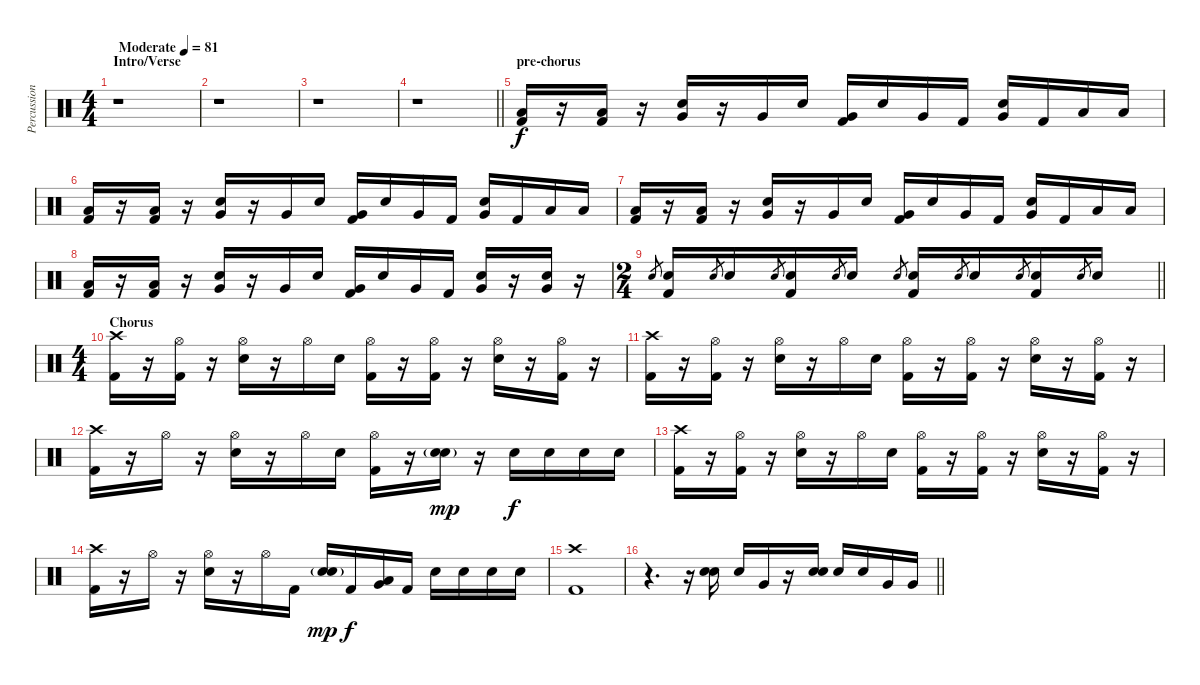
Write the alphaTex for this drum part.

\track ("Percussion" "Percussion") {instrument percussion}
\staff {score}
\articulation defaults
\ts (4 4)
\section ("" "Intro/Verse")
\tempo (81 "Moderate")
\clef neutral
\ks c
r.1{dy f} |
r.1 |
r.1 |
\barLineRight lightlight
r.1 |
\section ("" "pre-chorus")
("Low Floor Tom (hit)" "Kick (hit) 2").16 r.16 ("Low Floor Tom (hit)" "Kick (hit) 2").16 r.16 ("Very Low Tom (hit)" "Snare (hit) 2").16 r.16 "Very Low Tom (hit)".16 "Snare (hit) 2".16 ("Very Low Tom (hit)" "Kick (hit) 2").16 "Snare (hit) 2".16 "Very Low Tom (hit)".16 "Kick (hit) 2".16 ("Very Low Tom (hit)" "Snare (hit) 2").16 "Kick (hit) 2".16 "Low Floor Tom (hit)".16 "Low Floor Tom (hit)".16 |
("Low Floor Tom (hit)" "Kick (hit) 2").16 r.16 ("Low Floor Tom (hit)" "Kick (hit) 2").16 r.16 ("Very Low Tom (hit)" "Snare (hit) 2").16 r.16 "Very Low Tom (hit)".16 "Snare (hit) 2".16 ("Very Low Tom (hit)" "Kick (hit) 2").16 "Snare (hit) 2".16 "Very Low Tom (hit)".16 "Kick (hit) 2".16 ("Very Low Tom (hit)" "Snare (hit) 2").16 "Kick (hit) 2".16 "Low Floor Tom (hit)".16 "Low Floor Tom (hit)".16 |
("Low Floor Tom (hit)" "Kick (hit) 2").16 r.16 ("Low Floor Tom (hit)" "Kick (hit) 2").16 r.16 ("Very Low Tom (hit)" "Snare (hit) 2").16 r.16 "Very Low Tom (hit)".16 "Snare (hit) 2".16 ("Very Low Tom (hit)" "Kick (hit) 2").16 "Snare (hit) 2".16 "Very Low Tom (hit)".16 "Kick (hit) 2".16 ("Very Low Tom (hit)" "Snare (hit) 2").16 "Kick (hit) 2".16 "Low Floor Tom (hit)".16 "Low Floor Tom (hit)".16 |
("Low Floor Tom (hit)" "Kick (hit) 2").16 r.16 ("Low Floor Tom (hit)" "Kick (hit) 2").16 r.16 ("Very Low Tom (hit)" "Snare (hit) 2").16 r.16 "Very Low Tom (hit)".16 "Snare (hit) 2".16 ("Very Low Tom (hit)" "Kick (hit) 2").16 "Snare (hit) 2".16 "Very Low Tom (hit)".16 "Kick (hit) 2".16 ("Very Low Tom (hit)" "Snare (hit) 2").16 r.16 ("Very Low Tom (hit)" "Snare (hit) 2").16 r.16 |
\ts (2 4)
\barLineRight lightlight "Snare (hit) 2".8{gr}
("Snare (hit) 2" "Kick (hit) 2").16 "Snare (hit) 2".8{gr} "Snare (hit) 2".16 "Snare (hit) 2".8{gr} ("Snare (hit) 2" "Kick (hit) 2").16 "Snare (hit) 2".8{gr} "Snare (hit) 2".16 "Snare (hit) 2".8{gr} ("Snare (hit) 2" "Kick (hit) 2").16 "Snare (hit) 2".8{gr} "Snare (hit) 2".16 "Snare (hit) 2".8{gr} ("Snare (hit) 2" "Kick (hit) 2").16 "Snare (hit) 2".8{gr} "Snare (hit) 2".16 |
\ts (4 4)
\section ("" "Chorus")
("Crash high (hit)" "Kick (hit) 2").16 r.16 ("Hi-Hat (open)" "Kick (hit) 2").16 r.16 ("Hi-Hat (open)" "Snare (hit) 2").16 r.16 "Hi-Hat (open)".16 "Snare (hit) 2".16 ("Hi-Hat (open)" "Kick (hit) 2").16 r.16 ("Hi-Hat (open)" "Kick (hit) 2").16 r.16 ("Hi-Hat (open)" "Snare (hit) 2").16 r.16 ("Hi-Hat (open)" "Kick (hit) 2").16 r.16 |
("Crash high (hit)" "Kick (hit) 2").16 r.16 ("Hi-Hat (open)" "Kick (hit) 2").16 r.16 ("Hi-Hat (open)" "Snare (hit) 2").16 r.16 "Hi-Hat (open)".16 "Snare (hit) 2".16 ("Hi-Hat (open)" "Kick (hit) 2").16 r.16 ("Hi-Hat (open)" "Kick (hit) 2").16 r.16 ("Hi-Hat (open)" "Snare (hit) 2").16 r.16 ("Hi-Hat (open)" "Kick (hit) 2").16 r.16 |
("Crash high (hit)" "Kick (hit) 2").16 r.16 "Hi-Hat (open)".16 r.16 ("Hi-Hat (open)" "Snare (hit) 2").16 r.16 "Hi-Hat (open)".16 "Snare (hit) 2".16 ("Hi-Hat (open)" "Kick (hit) 2").16 r.16 ("Snare (hit) 2"{g} "Snare (hit) 2").16{dy mp} r.16 "Snare (hit) 2".16{dy f} "Snare (hit) 2".16 "Snare (hit) 2".16 "Snare (hit) 2".16 |
("Crash high (hit)" "Kick (hit) 2").16 r.16 ("Hi-Hat (open)" "Kick (hit) 2").16 r.16 ("Hi-Hat (open)" "Snare (hit) 2").16 r.16 "Hi-Hat (open)".16 "Snare (hit) 2".16 ("Hi-Hat (open)" "Kick (hit) 2").16 r.16 ("Hi-Hat (open)" "Kick (hit) 2").16 r.16 ("Hi-Hat (open)" "Snare (hit) 2").16 r.16 ("Hi-Hat (open)" "Kick (hit) 2").16 r.16 |
("Crash high (hit)" "Kick (hit) 2").16 r.16 "Hi-Hat (open)".16 r.16 ("Hi-Hat (open)" "Snare (hit) 2").16 r.16 "Hi-Hat (open)".16 "Kick (hit) 2".16 ("Snare (hit) 2"{g} "Snare (hit) 2").16{dy mp} "Kick (hit) 2".16{dy f} ("Very Low Tom (hit)" "Low Floor Tom (hit)").16 "Kick (hit) 2".16 "Snare (hit) 2".16 "Snare (hit) 2".16 "Snare (hit) 2".16 "Snare (hit) 2".16 |
("Crash high (hit)" "Kick (hit) 2").1 |
\barLineRight lightlight
r.4{d} r.16 ("Snare (hit) 2" "Snare (hit) 2").16 "Snare (hit) 2".16 "Very Low Tom (hit)".16 r.16 ("Snare (hit) 2" "Snare (hit) 2").16 "Snare (hit) 2".16 "Snare (hit) 2".16 "Very Low Tom (hit)".16 "Very Low Tom (hit)".16
